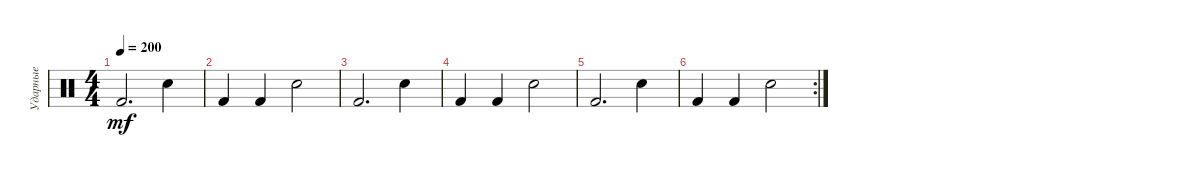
\track ("Ударные" "Ударные") {instrument percussion}
\staff {score}
\articulation defaults
\ts (4 4)
\tempo 200
\clef neutral
\ks c "Kick (hit) 2".2{d dy mf} "Snare (hit) 2".4
|
"Kick (hit) 2".4 "Kick (hit) 2".4 "Snare (hit) 2".2 |
"Kick (hit) 2".2{d} "Snare (hit) 2".4 |
"Kick (hit) 2".4 "Kick (hit) 2".4 "Snare (hit) 2".2 |
"Kick (hit) 2".2{d} "Snare (hit) 2".4 |
\rc 2 "Kick (hit) 2".4 "Kick (hit) 2".4 "Snare (hit) 2".2
